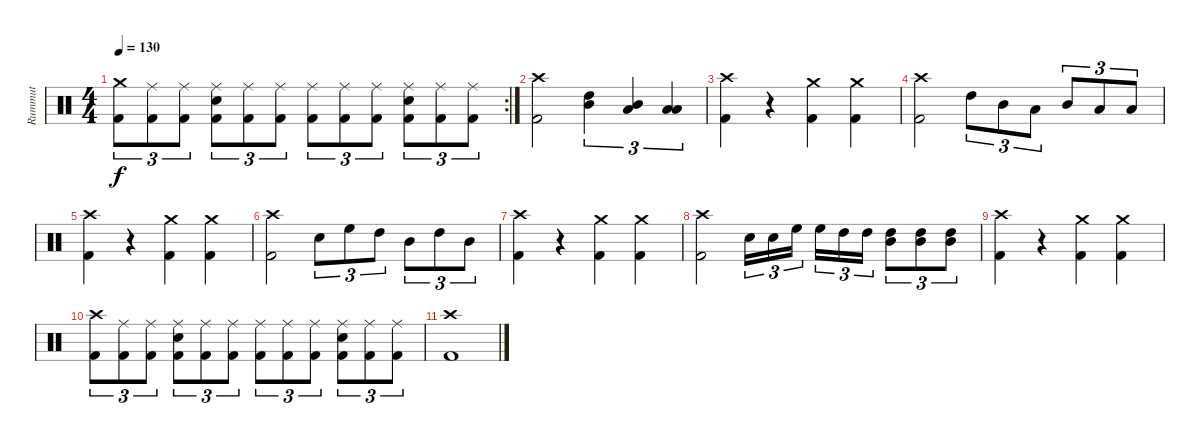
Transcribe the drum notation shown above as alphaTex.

\track ("Rummut" "Rummut") {instrument percussion}
\staff {score}
\articulation defaults
\rc 2
\ts (4 4)
\tempo 130
\clef neutral
\ks c
("Kick (hit) 2" "Crash medium (hit)").8{tu (3 2) dy f} ("Kick (hit) 2" "Ride (middle)").8{tu (3 2)} ("Kick (hit) 2" "Ride (middle)").8{tu (3 2)} ("Kick (hit) 2" "Electric Snare (hit)" "Ride (middle)").8{tu (3 2)} ("Kick (hit) 2" "Ride (middle)").8{tu (3 2)} ("Kick (hit) 2" "Ride (middle)").8{tu (3 2)} ("Kick (hit) 2" "Ride (middle)").8{tu (3 2)} ("Kick (hit) 2" "Ride (middle)").8{tu (3 2)} ("Kick (hit) 2" "Ride (middle)").8{tu (3 2)} ("Kick (hit) 2" "Electric Snare (hit)" "Ride (middle)").8{tu (3 2)} ("Kick (hit) 2" "Ride (middle)").8{tu (3 2)} ("Kick (hit) 2" "Ride (middle)").8{tu (3 2)} |
("Crash high (hit)" "Kick (hit) 2").2 ("High Tom (hit)" "Mid Tom (hit)").4{tu (3 2)} ("Mid Tom (hit)" "Low Tom (hit)").4{tu (3 2)} ("Low Tom (hit)" "Low Tom (hit)").4{tu (3 2)} |
("Crash high (hit)" "Kick (hit) 2").4 r.4 ("Crash medium (hit)" "Kick (hit) 2").4 ("Crash medium (hit)" "Kick (hit) 2").4 |
("Crash high (hit)" "Kick (hit) 2").2 "High Tom (hit)".8{tu (3 2)} "Mid Tom (hit)".8{tu (3 2)} "Low Tom (hit)".8{tu (3 2)} "Mid Tom (hit)".8{tu (3 2)} "Low Tom (hit)".8{tu (3 2)} "Low Tom (hit)".8{tu (3 2)} |
("Crash high (hit)" "Kick (hit) 2").4 r.4 ("Crash medium (hit)" "Kick (hit) 2").4 ("Crash medium (hit)" "Kick (hit) 2").4 |
("Crash high (hit)" "Kick (hit) 2").2 "Electric Snare (hit)".8{tu (3 2)} "High Floor Tom (hit)".8{tu (3 2)} "High Tom (hit)".8{tu (3 2)} "Mid Tom (hit)".8{tu (3 2)} "High Tom (hit)".8{tu (3 2)} "Mid Tom (hit)".8{tu (3 2)} |
("Crash high (hit)" "Kick (hit) 2").4 r.4 ("Crash medium (hit)" "Kick (hit) 2").4 ("Crash medium (hit)" "Kick (hit) 2").4 |
("Crash high (hit)" "Kick (hit) 2").2 "Electric Snare (hit)".16{tu (3 2)} "Electric Snare (hit)".16{tu (3 2)} "High Floor Tom (hit)".16{tu (3 2)} "High Floor Tom (hit)".16{tu (3 2)} "High Tom (hit)".16{tu (3 2)} "High Tom (hit)".16{tu (3 2)} ("High Tom (hit)" "Mid Tom (hit)").8{tu (3 2)} ("High Tom (hit)" "Mid Tom (hit)").8{tu (3 2)} ("High Tom (hit)" "Mid Tom (hit)").8{tu (3 2)} |
("Crash high (hit)" "Kick (hit) 2").4 r.4 ("Crash medium (hit)" "Kick (hit) 2").4 ("Crash medium (hit)" "Kick (hit) 2").4 |
("Kick (hit) 2" "Crash high (hit)").8{tu (3 2)} ("Kick (hit) 2" "Ride (middle)").8{tu (3 2)} ("Kick (hit) 2" "Ride (middle)").8{tu (3 2)} ("Kick (hit) 2" "Electric Snare (hit)" "Ride (middle)").8{tu (3 2)} ("Kick (hit) 2" "Ride (middle)").8{tu (3 2)} ("Kick (hit) 2" "Ride (middle)").8{tu (3 2)} ("Kick (hit) 2" "Ride (middle)").8{tu (3 2)} ("Kick (hit) 2" "Ride (middle)").8{tu (3 2)} ("Kick (hit) 2" "Ride (middle)").8{tu (3 2)} ("Kick (hit) 2" "Electric Snare (hit)" "Ride (middle)").8{tu (3 2)} ("Kick (hit) 2" "Ride (middle)").8{tu (3 2)} ("Kick (hit) 2" "Ride (middle)").8{tu (3 2)} |
("Crash high (hit)" "Kick (hit) 2").1
